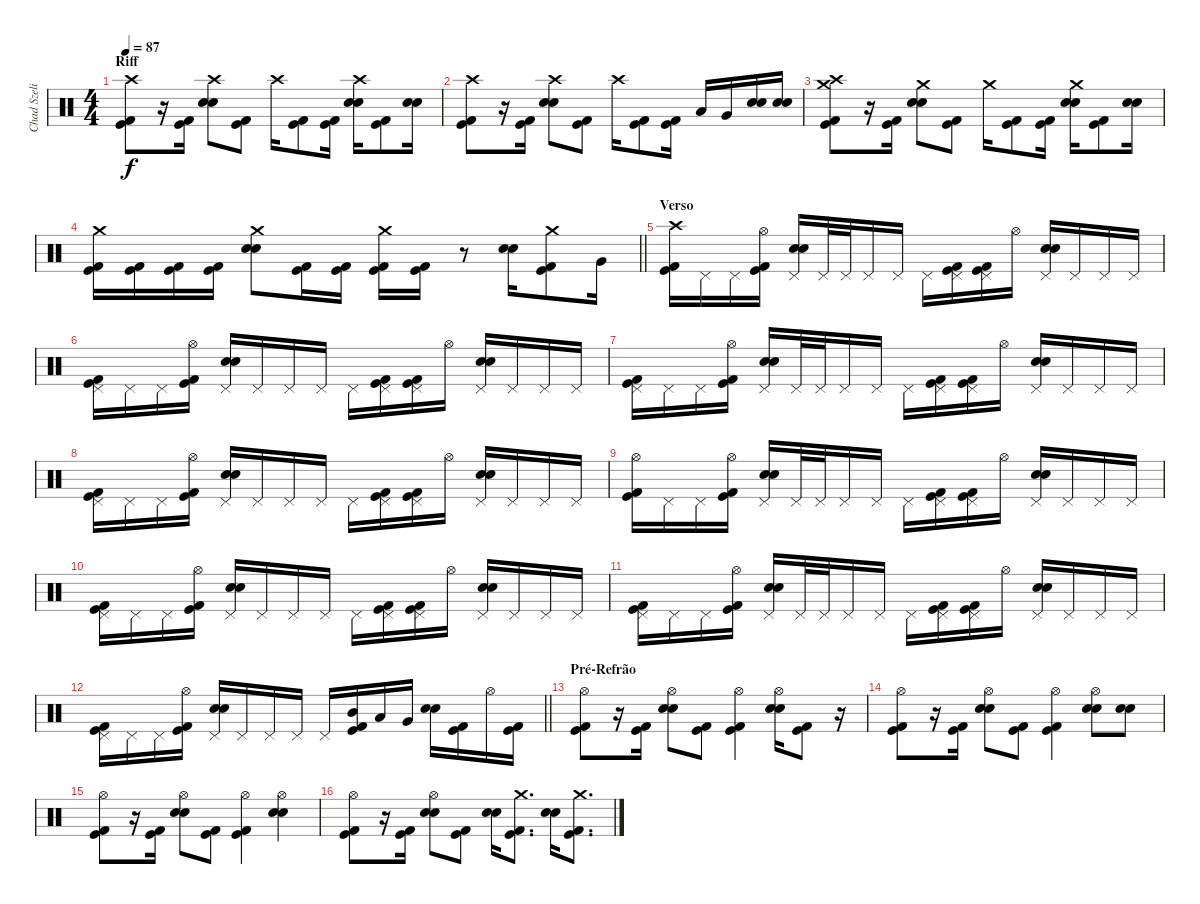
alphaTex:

\track ("Chad Szeliga" "Chad Szeli") {instrument percussion}
\staff {score}
\articulation defaults
\ts (4 4)
\section ("" "Riff")
\tempo 87
\clef neutral
\ks c
("Crash high (hit)" "Kick (hit) 2" "Kick (hit)").8{dy f} r.16 ("Kick (hit) 2" "Kick (hit)").16{beam Down} ("Crash high (hit)" "Snare (hit) 2" "Snare (hit) 2").8 ("Kick (hit) 2" "Kick (hit)").8 "Crash high (hit)".16 ("Kick (hit) 2" "Kick (hit)").8 ("Kick (hit) 2" "Kick (hit)").16 ("Crash high (hit)" "Snare (hit) 2" "Snare (hit) 2").16 ("Kick (hit) 2" "Kick (hit)").8 ("Snare (hit) 2" "Snare (hit) 2").16 |
("Crash high (hit)" "Kick (hit) 2" "Kick (hit)").8 r.16 ("Kick (hit) 2" "Kick (hit)").16{beam Down} ("Crash high (hit)" "Snare (hit) 2" "Snare (hit) 2").8 ("Kick (hit) 2" "Kick (hit)").8 "Crash high (hit)".16 ("Kick (hit) 2" "Kick (hit)").8 ("Kick (hit) 2" "Kick (hit)").16 "Low Tom (hit)".16 "Very Low Tom (hit)".16 ("Snare (hit) 2" "Snare (hit) 2").16 ("Snare (hit) 2" "Snare (hit) 2").16 |
("Crash high (hit)" "Kick (hit) 2" "Kick (hit)" "Crash medium (hit)").8 r.16 ("Kick (hit) 2" "Kick (hit)").16{beam Down} ("Crash medium (hit)" "Snare (hit) 2" "Snare (hit) 2").8 ("Kick (hit) 2" "Kick (hit)").8 "Crash medium (hit)".16 ("Kick (hit) 2" "Kick (hit)").8 ("Kick (hit) 2" "Kick (hit)").16 ("Crash medium (hit)" "Snare (hit) 2" "Snare (hit) 2").16 ("Kick (hit) 2" "Kick (hit)").8 ("Snare (hit) 2" "Snare (hit) 2").16 |
\barLineRight lightlight
("Crash medium (hit)" "Kick (hit) 2" "Kick (hit)").16 ("Kick (hit) 2" "Kick (hit)").16 ("Kick (hit) 2" "Kick (hit)").16 ("Kick (hit) 2" "Kick (hit)").16 ("Crash medium (hit)" "Snare (hit) 2" "Snare (hit) 2").8 ("Kick (hit) 2" "Kick (hit)").16 ("Kick (hit) 2" "Kick (hit)").16 ("Crash medium (hit)" "Kick (hit) 2" "Kick (hit)").16 ("Kick (hit) 2" "Kick (hit)").16 r.8 ("Snare (hit) 2" "Snare (hit) 2").16 ("Crash medium (hit)" "Kick (hit) 2" "Kick (hit)").8 "Very Low Tom (hit)".16 |
\section ("" "Verso")
("Crash high (hit)" "Kick (hit) 2" "Kick (hit)").16 "Pedal Hi-Hat (hit)".16 "Pedal Hi-Hat (hit)".16 ("Kick (hit) 2" "Kick (hit)" "Hi-Hat (open)").16 ("Snare (hit) 2" "Snare (hit) 2" "Pedal Hi-Hat (hit)").16 "Pedal Hi-Hat (hit)".32 "Pedal Hi-Hat (hit)".32 "Pedal Hi-Hat (hit)".16 "Pedal Hi-Hat (hit)".16 "Pedal Hi-Hat (hit)".16 ("Kick (hit) 2" "Kick (hit)" "Pedal Hi-Hat (hit)").16 ("Kick (hit) 2" "Kick (hit)" "Pedal Hi-Hat (hit)").16 "Hi-Hat (open)".16 ("Snare (hit) 2" "Snare (hit) 2" "Pedal Hi-Hat (hit)").16 "Pedal Hi-Hat (hit)".16 "Pedal Hi-Hat (hit)".16 "Pedal Hi-Hat (hit)".16 |
("Kick (hit) 2" "Kick (hit)" "Pedal Hi-Hat (hit)").16 "Pedal Hi-Hat (hit)".16 "Pedal Hi-Hat (hit)".16 ("Kick (hit) 2" "Kick (hit)" "Hi-Hat (open)").16 ("Snare (hit) 2" "Snare (hit) 2" "Pedal Hi-Hat (hit)").16 "Pedal Hi-Hat (hit)".16 "Pedal Hi-Hat (hit)".16 "Pedal Hi-Hat (hit)".16 "Pedal Hi-Hat (hit)".16 ("Kick (hit) 2" "Kick (hit)" "Pedal Hi-Hat (hit)").16 ("Kick (hit) 2" "Kick (hit)" "Pedal Hi-Hat (hit)").16 "Hi-Hat (open)".16 ("Snare (hit) 2" "Snare (hit) 2" "Pedal Hi-Hat (hit)").16 "Pedal Hi-Hat (hit)".16 "Pedal Hi-Hat (hit)".16 "Pedal Hi-Hat (hit)".16 |
("Kick (hit) 2" "Kick (hit)" "Pedal Hi-Hat (hit)").16 "Pedal Hi-Hat (hit)".16 "Pedal Hi-Hat (hit)".16 ("Kick (hit) 2" "Kick (hit)" "Hi-Hat (open)").16 ("Snare (hit) 2" "Snare (hit) 2" "Pedal Hi-Hat (hit)").16 "Pedal Hi-Hat (hit)".32 "Pedal Hi-Hat (hit)".32 "Pedal Hi-Hat (hit)".16 "Pedal Hi-Hat (hit)".16 "Pedal Hi-Hat (hit)".16 ("Kick (hit) 2" "Kick (hit)" "Pedal Hi-Hat (hit)").16 ("Kick (hit) 2" "Kick (hit)" "Pedal Hi-Hat (hit)").16 "Hi-Hat (open)".16 ("Snare (hit) 2" "Snare (hit) 2" "Pedal Hi-Hat (hit)").16 "Pedal Hi-Hat (hit)".16 "Pedal Hi-Hat (hit)".16 "Pedal Hi-Hat (hit)".16 |
("Kick (hit) 2" "Kick (hit)" "Pedal Hi-Hat (hit)").16 "Pedal Hi-Hat (hit)".16 "Pedal Hi-Hat (hit)".16 ("Kick (hit) 2" "Kick (hit)" "Hi-Hat (open)").16 ("Snare (hit) 2" "Snare (hit) 2" "Pedal Hi-Hat (hit)").16 "Pedal Hi-Hat (hit)".16 "Pedal Hi-Hat (hit)".16 "Pedal Hi-Hat (hit)".16 "Pedal Hi-Hat (hit)".16 ("Kick (hit) 2" "Kick (hit)" "Pedal Hi-Hat (hit)").16 ("Kick (hit) 2" "Kick (hit)" "Pedal Hi-Hat (hit)").16 "Hi-Hat (open)".16 ("Snare (hit) 2" "Snare (hit) 2" "Pedal Hi-Hat (hit)").16 "Pedal Hi-Hat (hit)".16 "Pedal Hi-Hat (hit)".16 "Pedal Hi-Hat (hit)".16 |
("Kick (hit) 2" "Kick (hit)" "Hi-Hat (open)").16 "Pedal Hi-Hat (hit)".16 "Pedal Hi-Hat (hit)".16 ("Kick (hit) 2" "Kick (hit)" "Hi-Hat (open)").16 ("Snare (hit) 2" "Snare (hit) 2" "Pedal Hi-Hat (hit)").16 "Pedal Hi-Hat (hit)".32 "Pedal Hi-Hat (hit)".32 "Pedal Hi-Hat (hit)".16 "Pedal Hi-Hat (hit)".16 "Pedal Hi-Hat (hit)".16 ("Kick (hit) 2" "Kick (hit)" "Pedal Hi-Hat (hit)").16 ("Kick (hit) 2" "Kick (hit)" "Pedal Hi-Hat (hit)").16 "Hi-Hat (open)".16 ("Snare (hit) 2" "Snare (hit) 2" "Pedal Hi-Hat (hit)").16 "Pedal Hi-Hat (hit)".16 "Pedal Hi-Hat (hit)".16 "Pedal Hi-Hat (hit)".16 |
("Kick (hit) 2" "Kick (hit)" "Pedal Hi-Hat (hit)").16 "Pedal Hi-Hat (hit)".16 "Pedal Hi-Hat (hit)".16 ("Kick (hit) 2" "Kick (hit)" "Hi-Hat (open)").16 ("Snare (hit) 2" "Snare (hit) 2" "Pedal Hi-Hat (hit)").16 "Pedal Hi-Hat (hit)".16 "Pedal Hi-Hat (hit)".16 "Pedal Hi-Hat (hit)".16 "Pedal Hi-Hat (hit)".16 ("Kick (hit) 2" "Kick (hit)" "Pedal Hi-Hat (hit)").16 ("Kick (hit) 2" "Kick (hit)" "Pedal Hi-Hat (hit)").16 "Hi-Hat (open)".16 ("Snare (hit) 2" "Snare (hit) 2" "Pedal Hi-Hat (hit)").16 "Pedal Hi-Hat (hit)".16 "Pedal Hi-Hat (hit)".16 "Pedal Hi-Hat (hit)".16 |
("Kick (hit) 2" "Kick (hit)" "Pedal Hi-Hat (hit)").16 "Pedal Hi-Hat (hit)".16 "Pedal Hi-Hat (hit)".16 ("Kick (hit) 2" "Kick (hit)" "Hi-Hat (open)").16 ("Snare (hit) 2" "Snare (hit) 2" "Pedal Hi-Hat (hit)").16 "Pedal Hi-Hat (hit)".32 "Pedal Hi-Hat (hit)".32 "Pedal Hi-Hat (hit)".16 "Pedal Hi-Hat (hit)".16 "Pedal Hi-Hat (hit)".16 ("Kick (hit) 2" "Kick (hit)" "Pedal Hi-Hat (hit)").16 ("Kick (hit) 2" "Kick (hit)" "Pedal Hi-Hat (hit)").16 "Hi-Hat (open)".16 ("Snare (hit) 2" "Snare (hit) 2" "Pedal Hi-Hat (hit)").16 "Pedal Hi-Hat (hit)".16 "Pedal Hi-Hat (hit)".16 "Pedal Hi-Hat (hit)".16 |
\barLineRight lightlight
("Kick (hit) 2" "Kick (hit)" "Pedal Hi-Hat (hit)").16 "Pedal Hi-Hat (hit)".16 "Pedal Hi-Hat (hit)".16 ("Kick (hit) 2" "Kick (hit)" "Hi-Hat (open)").16 ("Snare (hit) 2" "Snare (hit) 2" "Pedal Hi-Hat (hit)").16 "Pedal Hi-Hat (hit)".16 "Pedal Hi-Hat (hit)".16 "Pedal Hi-Hat (hit)".16 "Pedal Hi-Hat (hit)".16 ("Kick (hit) 2" "Kick (hit)" "Mid Tom (hit)").16 "Low Tom (hit)".16 "Very Low Tom (hit)".16 ("Snare (hit) 2" "Snare (hit) 2").16 ("Kick (hit) 2" "Kick (hit)").16 "Hi-Hat (open)".16 ("Kick (hit) 2" "Kick (hit)").16 |
\section ("" "Pré-Refrão")
("Kick (hit) 2" "Kick (hit)" "Hi-Hat (open)").8 r.16 ("Kick (hit) 2" "Kick (hit)").16{beam Down} ("Snare (hit) 2" "Snare (hit) 2" "Hi-Hat (open)").8 ("Kick (hit) 2" "Kick (hit)").8 ("Kick (hit) 2" "Kick (hit)" "Hi-Hat (open)").4 ("Snare (hit) 2" "Snare (hit) 2" "Hi-Hat (open)").16 ("Kick (hit) 2" "Kick (hit)").8 r.16 |
("Kick (hit) 2" "Kick (hit)" "Hi-Hat (open)").8 r.16 ("Kick (hit) 2" "Kick (hit)").16{beam Down} ("Snare (hit) 2" "Snare (hit) 2" "Hi-Hat (open)").8 ("Kick (hit) 2" "Kick (hit)").8 ("Kick (hit) 2" "Kick (hit)" "Hi-Hat (open)").4 ("Snare (hit) 2" "Snare (hit) 2" "Hi-Hat (open)").8 ("Snare (hit) 2" "Snare (hit) 2").8 |
("Kick (hit) 2" "Kick (hit)" "Hi-Hat (open)").8 r.16 ("Kick (hit) 2" "Kick (hit)").16{beam Down} ("Snare (hit) 2" "Snare (hit) 2" "Hi-Hat (open)").8 ("Kick (hit) 2" "Kick (hit)").8 ("Kick (hit) 2" "Kick (hit)" "Hi-Hat (open)").4 ("Snare (hit) 2" "Snare (hit) 2" "Hi-Hat (open)").4 |
("Kick (hit) 2" "Kick (hit)" "Hi-Hat (open)").8 r.16 ("Kick (hit) 2" "Kick (hit)").16{beam Down} ("Snare (hit) 2" "Snare (hit) 2" "Hi-Hat (open)").8 ("Kick (hit) 2" "Kick (hit)").8 ("Snare (hit) 2" "Snare (hit) 2").16 ("Crash medium (hit)" "Kick (hit) 2" "Kick (hit)").8{d} ("Snare (hit) 2" "Snare (hit) 2").16 ("Crash medium (hit)" "Kick (hit) 2" "Kick (hit)").8{d}
